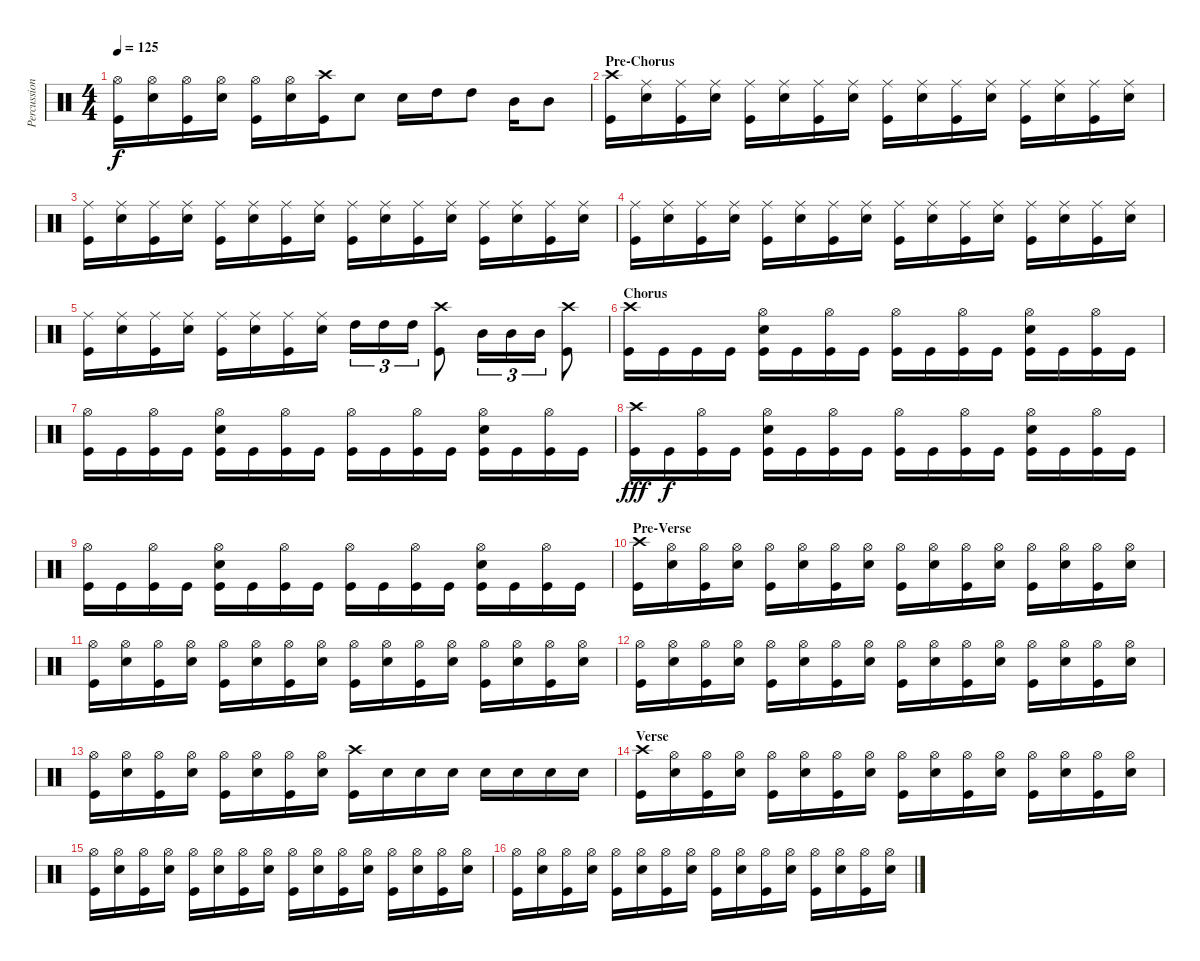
\track ("Percussion" "Percussion") {instrument percussion}
\staff {score}
\articulation defaults
\ts (4 4)
\tempo 125
\clef neutral
\ks c
("Hi-Hat (open)" "Kick (hit)").16{dy f} ("Hi-Hat (open)" "Electric Snare (hit)").16 ("Hi-Hat (open)" "Kick (hit)").16 ("Hi-Hat (open)" "Electric Snare (hit)").16 ("Hi-Hat (open)" "Kick (hit)").16 ("Hi-Hat (open)" "Electric Snare (hit)").16 ("Crash high (hit)" "Kick (hit)").16 "Electric Snare (hit)".8 "Electric Snare (hit)".16 "High Tom (hit)".16 "High Tom (hit)".8 "Mid Tom (hit)".16 "Mid Tom (hit)".8 |
\section ("" "Pre-Chorus")
("Crash high (hit)" "Kick (hit)").16 ("Ride (middle)" "Electric Snare (hit)").16 ("Ride (middle)" "Kick (hit)").16 ("Ride (middle)" "Electric Snare (hit)").16 ("Ride (middle)" "Kick (hit)").16 ("Ride (middle)" "Electric Snare (hit)").16 ("Ride (middle)" "Kick (hit)").16 ("Ride (middle)" "Electric Snare (hit)").16 ("Ride (middle)" "Kick (hit)").16 ("Ride (middle)" "Electric Snare (hit)").16 ("Ride (middle)" "Kick (hit)").16 ("Ride (middle)" "Electric Snare (hit)").16 ("Ride (middle)" "Kick (hit)").16 ("Ride (middle)" "Electric Snare (hit)").16 ("Ride (middle)" "Kick (hit)").16 ("Ride (middle)" "Electric Snare (hit)").16 |
("Ride (middle)" "Kick (hit)").16 ("Ride (middle)" "Electric Snare (hit)").16 ("Ride (middle)" "Kick (hit)").16 ("Ride (middle)" "Electric Snare (hit)").16 ("Ride (middle)" "Kick (hit)").16 ("Ride (middle)" "Electric Snare (hit)").16 ("Ride (middle)" "Kick (hit)").16 ("Ride (middle)" "Electric Snare (hit)").16 ("Ride (middle)" "Kick (hit)").16 ("Ride (middle)" "Electric Snare (hit)").16 ("Ride (middle)" "Kick (hit)").16 ("Ride (middle)" "Electric Snare (hit)").16 ("Ride (middle)" "Kick (hit)").16 ("Ride (middle)" "Electric Snare (hit)").16 ("Ride (middle)" "Kick (hit)").16 ("Ride (middle)" "Electric Snare (hit)").16 |
("Ride (middle)" "Kick (hit)").16 ("Ride (middle)" "Electric Snare (hit)").16 ("Ride (middle)" "Kick (hit)").16 ("Ride (middle)" "Electric Snare (hit)").16 ("Ride (middle)" "Kick (hit)").16 ("Ride (middle)" "Electric Snare (hit)").16 ("Ride (middle)" "Kick (hit)").16 ("Ride (middle)" "Electric Snare (hit)").16 ("Ride (middle)" "Kick (hit)").16 ("Ride (middle)" "Electric Snare (hit)").16 ("Ride (middle)" "Kick (hit)").16 ("Ride (middle)" "Electric Snare (hit)").16 ("Ride (middle)" "Kick (hit)").16 ("Ride (middle)" "Electric Snare (hit)").16 ("Ride (middle)" "Kick (hit)").16 ("Ride (middle)" "Electric Snare (hit)").16 |
("Ride (middle)" "Kick (hit)").16 ("Ride (middle)" "Electric Snare (hit)").16 ("Ride (middle)" "Kick (hit)").16 ("Ride (middle)" "Electric Snare (hit)").16 ("Ride (middle)" "Kick (hit)").16 ("Ride (middle)" "Electric Snare (hit)").16 ("Ride (middle)" "Kick (hit)").16 ("Ride (middle)" "Electric Snare (hit)").16 "High Tom (hit)".16{tu (3 2)} "High Tom (hit)".16{tu (3 2)} "High Tom (hit)".16{tu (3 2)} ("Crash high (hit)" "Kick (hit)").8 "Mid Tom (hit)".16{tu (3 2)} "Mid Tom (hit)".16{tu (3 2)} "Mid Tom (hit)".16{tu (3 2)} ("Crash high (hit)" "Kick (hit)").8 |
\section ("" "Chorus")
("Crash high (hit)" "Kick (hit)").16 "Kick (hit)".16 "Kick (hit)".16 "Kick (hit)".16 ("Hi-Hat (open)" "Electric Snare (hit)" "Kick (hit)").16 "Kick (hit)".16 ("Hi-Hat (open)" "Kick (hit)").16 "Kick (hit)".16 ("Hi-Hat (open)" "Kick (hit)").16 "Kick (hit)".16 ("Hi-Hat (open)" "Kick (hit)").16 "Kick (hit)".16 ("Hi-Hat (open)" "Electric Snare (hit)" "Kick (hit)").16 "Kick (hit)".16 ("Hi-Hat (open)" "Kick (hit)").16 "Kick (hit)".16 |
("Hi-Hat (open)" "Kick (hit)").16 "Kick (hit)".16 ("Hi-Hat (open)" "Kick (hit)").16 "Kick (hit)".16 ("Hi-Hat (open)" "Electric Snare (hit)" "Kick (hit)").16 "Kick (hit)".16 ("Hi-Hat (open)" "Kick (hit)").16 "Kick (hit)".16 ("Hi-Hat (open)" "Kick (hit)").16 "Kick (hit)".16 ("Hi-Hat (open)" "Kick (hit)").16 "Kick (hit)".16 ("Hi-Hat (open)" "Electric Snare (hit)" "Kick (hit)").16 "Kick (hit)".16 ("Hi-Hat (open)" "Kick (hit)").16 "Kick (hit)".16 |
("Crash high (hit)" "Kick (hit)").16{dy fff} "Kick (hit)".16{dy f} ("Hi-Hat (open)" "Kick (hit)").16 "Kick (hit)".16 ("Hi-Hat (open)" "Electric Snare (hit)" "Kick (hit)").16 "Kick (hit)".16 ("Hi-Hat (open)" "Kick (hit)").16 "Kick (hit)".16 ("Hi-Hat (open)" "Kick (hit)").16 "Kick (hit)".16 ("Hi-Hat (open)" "Kick (hit)").16 "Kick (hit)".16 ("Hi-Hat (open)" "Electric Snare (hit)" "Kick (hit)").16 "Kick (hit)".16 ("Hi-Hat (open)" "Kick (hit)").16 "Kick (hit)".16 |
("Hi-Hat (open)" "Kick (hit)").16 "Kick (hit)".16 ("Hi-Hat (open)" "Kick (hit)").16 "Kick (hit)".16 ("Hi-Hat (open)" "Electric Snare (hit)" "Kick (hit)").16 "Kick (hit)".16 ("Hi-Hat (open)" "Kick (hit)").16 "Kick (hit)".16 ("Hi-Hat (open)" "Kick (hit)").16 "Kick (hit)".16 ("Hi-Hat (open)" "Kick (hit)").16 "Kick (hit)".16 ("Hi-Hat (open)" "Electric Snare (hit)" "Kick (hit)").16 "Kick (hit)".16 ("Hi-Hat (open)" "Kick (hit)").16 "Kick (hit)".16 |
\section ("" "Pre-Verse")
("Crash high (hit)" "Kick (hit)").16 ("Hi-Hat (open)" "Electric Snare (hit)").16 ("Hi-Hat (open)" "Kick (hit)").16 ("Hi-Hat (open)" "Electric Snare (hit)").16 ("Hi-Hat (open)" "Kick (hit)").16 ("Hi-Hat (open)" "Electric Snare (hit)").16 ("Hi-Hat (open)" "Kick (hit)").16 ("Hi-Hat (open)" "Electric Snare (hit)").16 ("Hi-Hat (open)" "Kick (hit)").16 ("Hi-Hat (open)" "Electric Snare (hit)").16 ("Hi-Hat (open)" "Kick (hit)").16 ("Hi-Hat (open)" "Electric Snare (hit)").16 ("Hi-Hat (open)" "Kick (hit)").16 ("Hi-Hat (open)" "Electric Snare (hit)").16 ("Hi-Hat (open)" "Kick (hit)").16 ("Hi-Hat (open)" "Electric Snare (hit)").16 |
("Hi-Hat (open)" "Kick (hit)").16 ("Hi-Hat (open)" "Electric Snare (hit)").16 ("Hi-Hat (open)" "Kick (hit)").16 ("Hi-Hat (open)" "Electric Snare (hit)").16 ("Hi-Hat (open)" "Kick (hit)").16 ("Hi-Hat (open)" "Electric Snare (hit)").16 ("Hi-Hat (open)" "Kick (hit)").16 ("Hi-Hat (open)" "Electric Snare (hit)").16 ("Hi-Hat (open)" "Kick (hit)").16 ("Hi-Hat (open)" "Electric Snare (hit)").16 ("Hi-Hat (open)" "Kick (hit)").16 ("Hi-Hat (open)" "Electric Snare (hit)").16 ("Hi-Hat (open)" "Kick (hit)").16 ("Hi-Hat (open)" "Electric Snare (hit)").16 ("Hi-Hat (open)" "Kick (hit)").16 ("Hi-Hat (open)" "Electric Snare (hit)").16 |
("Hi-Hat (open)" "Kick (hit)").16 ("Hi-Hat (open)" "Electric Snare (hit)").16 ("Hi-Hat (open)" "Kick (hit)").16 ("Hi-Hat (open)" "Electric Snare (hit)").16 ("Hi-Hat (open)" "Kick (hit)").16 ("Hi-Hat (open)" "Electric Snare (hit)").16 ("Hi-Hat (open)" "Kick (hit)").16 ("Hi-Hat (open)" "Electric Snare (hit)").16 ("Hi-Hat (open)" "Kick (hit)").16 ("Hi-Hat (open)" "Electric Snare (hit)").16 ("Hi-Hat (open)" "Kick (hit)").16 ("Hi-Hat (open)" "Electric Snare (hit)").16 ("Hi-Hat (open)" "Kick (hit)").16 ("Hi-Hat (open)" "Electric Snare (hit)").16 ("Hi-Hat (open)" "Kick (hit)").16 ("Hi-Hat (open)" "Electric Snare (hit)").16 |
("Hi-Hat (open)" "Kick (hit)").16 ("Hi-Hat (open)" "Electric Snare (hit)").16 ("Hi-Hat (open)" "Kick (hit)").16 ("Hi-Hat (open)" "Electric Snare (hit)").16 ("Hi-Hat (open)" "Kick (hit)").16 ("Hi-Hat (open)" "Electric Snare (hit)").16 ("Hi-Hat (open)" "Kick (hit)").16 ("Hi-Hat (open)" "Electric Snare (hit)").16 ("Crash high (hit)" "Kick (hit)").16 "Electric Snare (hit)".16 "Electric Snare (hit)".16 "Electric Snare (hit)".16 "Electric Snare (hit)".16 "Electric Snare (hit)".16 "Electric Snare (hit)".16 "Electric Snare (hit)".16 |
\section ("" "Verse")
("Crash high (hit)" "Kick (hit)").16 ("Hi-Hat (open)" "Electric Snare (hit)").16 ("Hi-Hat (open)" "Kick (hit)").16 ("Hi-Hat (open)" "Electric Snare (hit)").16 ("Hi-Hat (open)" "Kick (hit)").16 ("Hi-Hat (open)" "Electric Snare (hit)").16 ("Hi-Hat (open)" "Kick (hit)").16 ("Hi-Hat (open)" "Electric Snare (hit)").16 ("Hi-Hat (open)" "Kick (hit)").16 ("Hi-Hat (open)" "Electric Snare (hit)").16 ("Hi-Hat (open)" "Kick (hit)").16 ("Hi-Hat (open)" "Electric Snare (hit)").16 ("Hi-Hat (open)" "Kick (hit)").16 ("Hi-Hat (open)" "Electric Snare (hit)").16 ("Hi-Hat (open)" "Kick (hit)").16 ("Hi-Hat (open)" "Electric Snare (hit)").16 |
("Hi-Hat (open)" "Kick (hit)").16 ("Hi-Hat (open)" "Electric Snare (hit)").16 ("Hi-Hat (open)" "Kick (hit)").16 ("Hi-Hat (open)" "Electric Snare (hit)").16 ("Hi-Hat (open)" "Kick (hit)").16 ("Hi-Hat (open)" "Electric Snare (hit)").16 ("Hi-Hat (open)" "Kick (hit)").16 ("Hi-Hat (open)" "Electric Snare (hit)").16 ("Hi-Hat (open)" "Kick (hit)").16 ("Hi-Hat (open)" "Electric Snare (hit)").16 ("Hi-Hat (open)" "Kick (hit)").16 ("Hi-Hat (open)" "Electric Snare (hit)").16 ("Hi-Hat (open)" "Kick (hit)").16 ("Hi-Hat (open)" "Electric Snare (hit)").16 ("Hi-Hat (open)" "Kick (hit)").16 ("Hi-Hat (open)" "Electric Snare (hit)").16 |
("Hi-Hat (open)" "Kick (hit)").16 ("Hi-Hat (open)" "Electric Snare (hit)").16 ("Hi-Hat (open)" "Kick (hit)").16 ("Hi-Hat (open)" "Electric Snare (hit)").16 ("Hi-Hat (open)" "Kick (hit)").16 ("Hi-Hat (open)" "Electric Snare (hit)").16 ("Hi-Hat (open)" "Kick (hit)").16 ("Hi-Hat (open)" "Electric Snare (hit)").16 ("Hi-Hat (open)" "Kick (hit)").16 ("Hi-Hat (open)" "Electric Snare (hit)").16 ("Hi-Hat (open)" "Kick (hit)").16 ("Hi-Hat (open)" "Electric Snare (hit)").16 ("Hi-Hat (open)" "Kick (hit)").16 ("Hi-Hat (open)" "Electric Snare (hit)").16 ("Hi-Hat (open)" "Kick (hit)").16 ("Hi-Hat (open)" "Electric Snare (hit)").16
